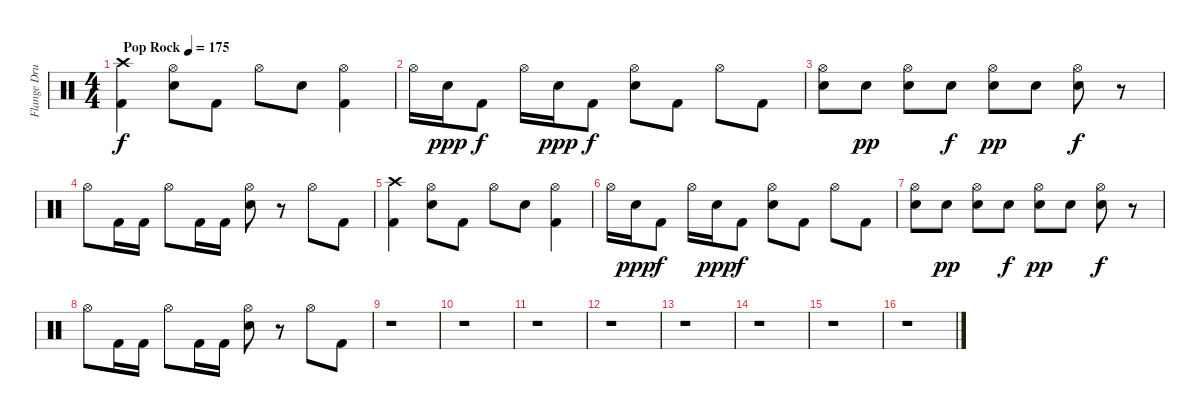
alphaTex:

\track ("Flange Drums" "Flange Dru") {instrument percussion}
\staff {score}
\articulation defaults
\ts (4 4)
\tempo (175 "Pop Rock")
\clef neutral
\ks c
("Crash high (hit)" "Kick (hit) 2").4{dy f} ("Hi-Hat (open)" "Electric Snare (hit)").8 "Kick (hit) 2".8 "Hi-Hat (open)".8 "Electric Snare (hit)".8 ("Hi-Hat (open)" "Kick (hit) 2").4 |
"Hi-Hat (open)".16 "Electric Snare (hit)".16{dy ppp} "Kick (hit) 2".8{dy f} "Hi-Hat (open)".16 "Electric Snare (hit)".16{dy ppp} "Kick (hit) 2".8{dy f} ("Hi-Hat (open)" "Electric Snare (hit)").8 "Kick (hit) 2".8 "Hi-Hat (open)".8 "Kick (hit) 2".8 |
("Hi-Hat (open)" "Electric Snare (hit)").8 "Electric Snare (hit)".8{dy pp} ("Hi-Hat (open)" "Electric Snare (hit)").8 "Electric Snare (hit)".8{dy f} ("Hi-Hat (open)" "Electric Snare (hit)").8{dy pp} "Electric Snare (hit)".8 ("Hi-Hat (open)" "Electric Snare (hit)").8{dy f} r.8 |
"Hi-Hat (open)".8 "Kick (hit) 2".16 "Kick (hit) 2".16 "Hi-Hat (open)".8 "Kick (hit) 2".16 "Kick (hit) 2".16 ("Hi-Hat (open)" "Electric Snare (hit)").8 r.8 "Hi-Hat (open)".8 "Kick (hit) 2".8 |
("Crash high (hit)" "Kick (hit) 2").4 ("Hi-Hat (open)" "Electric Snare (hit)").8 "Kick (hit) 2".8 "Hi-Hat (open)".8 "Electric Snare (hit)".8 ("Hi-Hat (open)" "Kick (hit) 2").4 |
"Hi-Hat (open)".16 "Electric Snare (hit)".16{dy ppp} "Kick (hit) 2".8{dy f} "Hi-Hat (open)".16 "Electric Snare (hit)".16{dy ppp} "Kick (hit) 2".8{dy f} ("Hi-Hat (open)" "Electric Snare (hit)").8 "Kick (hit) 2".8 "Hi-Hat (open)".8 "Kick (hit) 2".8 |
("Hi-Hat (open)" "Electric Snare (hit)").8 "Electric Snare (hit)".8{dy pp} ("Hi-Hat (open)" "Electric Snare (hit)").8 "Electric Snare (hit)".8{dy f} ("Hi-Hat (open)" "Electric Snare (hit)").8{dy pp} "Electric Snare (hit)".8 ("Hi-Hat (open)" "Electric Snare (hit)").8{dy f} r.8 |
"Hi-Hat (open)".8 "Kick (hit) 2".16 "Kick (hit) 2".16 "Hi-Hat (open)".8 "Kick (hit) 2".16 "Kick (hit) 2".16 ("Hi-Hat (open)" "Electric Snare (hit)").8 r.8 "Hi-Hat (open)".8 "Kick (hit) 2".8 |
r.1 |
r.1 |
r.1 |
r.1 |
r.1 |
r.1 |
r.1 |
r.1
